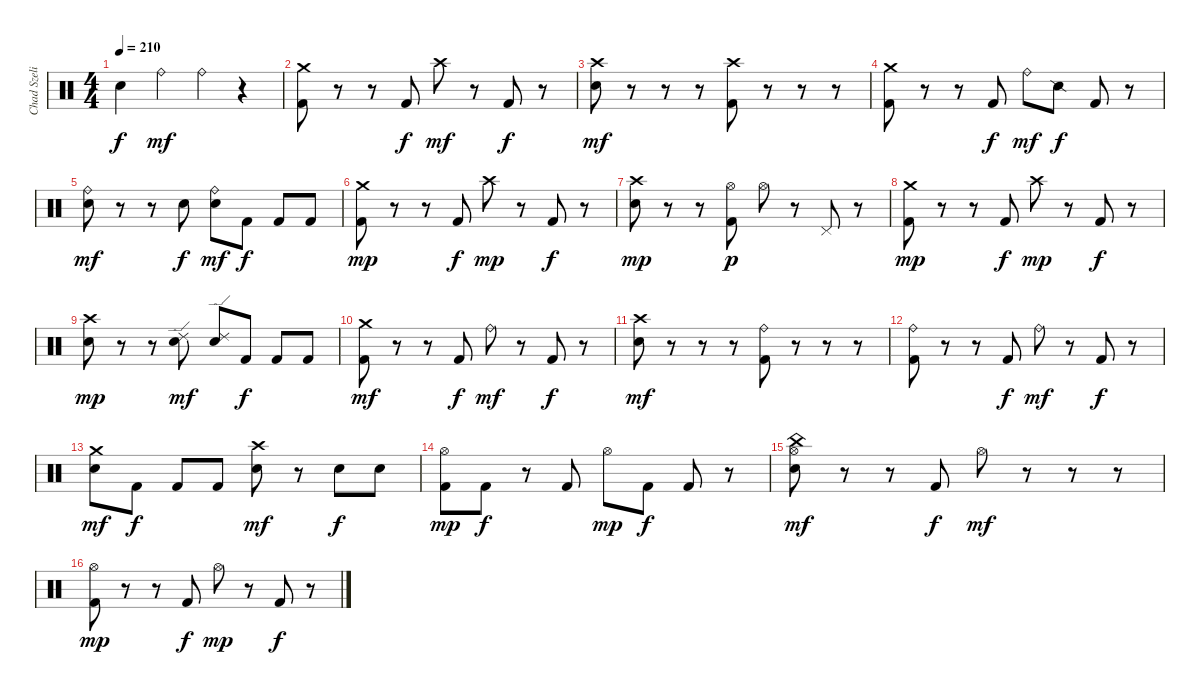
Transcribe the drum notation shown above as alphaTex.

\track ("Chad Szeliga" "Chad Szeli") {instrument percussion}
\staff {score}
\articulation defaults
\ts (4 4)
\tempo 210
\clef neutral
\ks c "Snare (hit) 2".4{dy f} "Ride (bell)".4{dy mf} "Ride (bell)".4
r.4 |
("Kick (hit) 2" "Crash medium (hit)").8 r.8 r.8 "Kick (hit) 2".8{dy f} "Crash high (hit)".8{dy mf} r.8 "Kick (hit) 2".8{dy f} r.8 |
("Snare (hit) 2" "Crash high (hit)").8{dy mf} r.8 r.8 r.8 ("Kick (hit) 2" "Crash high (hit)").8 r.8 r.8 r.8 |
("Kick (hit) 2" "Crash medium (hit)").8 r.8 r.8 "Kick (hit) 2".8{dy f} "Ride (bell)".8{dy mf} "Snare (side stick) 2".8{dy f} "Kick (hit) 2".8 r.8 |
("Snare (hit) 2" "Ride (bell)").8{dy mf} r.8 r.8 "Snare (hit) 2".8{dy f} ("Snare (hit) 2" "Ride (bell)").8{dy mf} "Kick (hit) 2".8{dy f} "Kick (hit) 2".8 "Kick (hit) 2".8 |
("Kick (hit) 2" "Crash medium (hit)").8{dy mp} r.8 r.8 "Kick (hit) 2".8{dy f} "Crash high (hit)".8{dy mp} r.8 "Kick (hit) 2".8{dy f} r.8 |
("Snare (hit) 2" "Crash high (hit)").8{dy mp} r.8 r.8 ("Kick (hit) 2" "Hi-Hat (open)").8{dy p} "Hi-Hat (open)".8 r.8 "Pedal Hi-Hat (hit)".8 r.8 |
("Kick (hit) 2" "Crash medium (hit)").8{dy mp} r.8 r.8 "Kick (hit) 2".8{dy f} "Crash high (hit)".8{dy mp} r.8 "Kick (hit) 2".8{dy f} r.8 |
("Snare (hit) 2" "Crash high (hit)").8{dy mp} r.8 r.8 ("Snare (hit) 2" "Ride (edge) 2").8{dy mf} ("Snare (hit) 2" "Ride (edge) 2").8 "Kick (hit) 2".8{dy f} "Kick (hit) 2".8 "Kick (hit) 2".8 |
("Kick (hit) 2" "Crash medium (hit)").8{dy mf} r.8 r.8 "Kick (hit) 2".8{dy f} "Ride (bell)".8{dy mf} r.8 "Kick (hit) 2".8{dy f} r.8 |
("Snare (hit) 2" "Crash high (hit)").8{dy mf} r.8 r.8 r.8 ("Kick (hit) 2" "Ride (bell)").8 r.8 r.8 r.8 |
("Kick (hit) 2" "Ride (bell)").8 r.8 r.8 "Kick (hit) 2".8{dy f} "Ride (bell)".8{dy mf} r.8 "Kick (hit) 2".8{dy f} r.8 |
("Snare (hit) 2" "Crash medium (hit)").8{dy mf} "Kick (hit) 2".8{dy f} "Kick (hit) 2".8 "Kick (hit) 2".8 ("Snare (hit) 2" "Crash high (hit)").8{dy mf} r.8 "Snare (hit) 2".8{dy f} "Snare (hit) 2".8 |
("Kick (hit) 2" "Hi-Hat (open)").8{dy mp} "Kick (hit) 2".8{dy f} r.8 "Kick (hit) 2".8 "Hi-Hat (open)".8{dy mp} "Kick (hit) 2".8{dy f} "Kick (hit) 2".8 r.8 |
("Snare (hit) 2" "Hi-Hat (open)" "China (hit)").8{dy mf} r.8 r.8 "Kick (hit) 2".8{dy f} "Hi-Hat (open)".8{dy mf} r.8 r.8 r.8 |
("Kick (hit) 2" "Hi-Hat (open)").8{dy mp} r.8 r.8 "Kick (hit) 2".8{dy f} "Hi-Hat (open)".8{dy mp} r.8 "Kick (hit) 2".8{dy f} r.8
